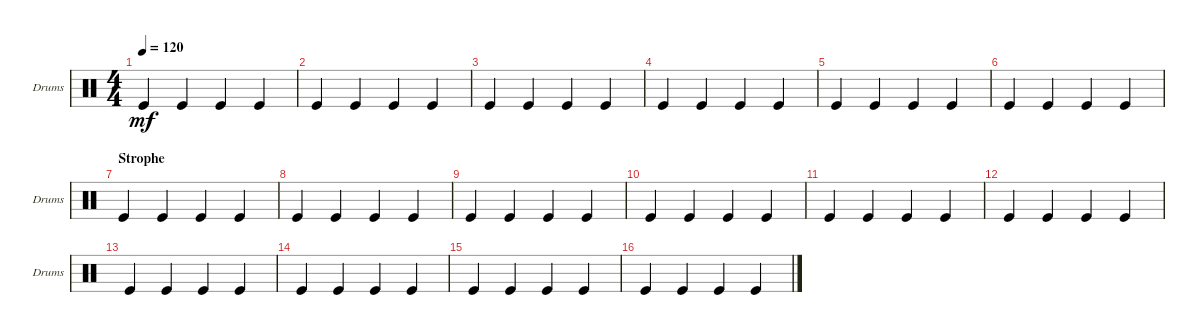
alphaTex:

\bracketExtendMode groupsimilarinstruments
\singleTrackTrackNamePolicy allsystems
\multiTrackTrackNamePolicy allsystems
\firstSystemTrackNameOrientation horizontal
\otherSystemsTrackNameOrientation horizontal
\track ("Bass Drum" "Drums") {instrument percussion}
\staff {score}
\articulation defaults
\ts (4 4)
\tempo 120
\clef neutral
\ks c "Kick (hit)".4{dy mf} "Kick (hit)".4 "Kick (hit)".4 "Kick (hit)".4
|
"Kick (hit)".4 "Kick (hit)".4 "Kick (hit)".4 "Kick (hit)".4 |
"Kick (hit)".4 "Kick (hit)".4 "Kick (hit)".4 "Kick (hit)".4 |
"Kick (hit)".4 "Kick (hit)".4 "Kick (hit)".4 "Kick (hit)".4 |
"Kick (hit)".4 "Kick (hit)".4 "Kick (hit)".4 "Kick (hit)".4 |
"Kick (hit)".4 "Kick (hit)".4 "Kick (hit)".4 "Kick (hit)".4 |
\section ("" "Strophe")
"Kick (hit)".4 "Kick (hit)".4 "Kick (hit)".4 "Kick (hit)".4 |
"Kick (hit)".4 "Kick (hit)".4 "Kick (hit)".4 "Kick (hit)".4 |
"Kick (hit)".4 "Kick (hit)".4 "Kick (hit)".4 "Kick (hit)".4 |
"Kick (hit)".4 "Kick (hit)".4 "Kick (hit)".4 "Kick (hit)".4 |
"Kick (hit)".4 "Kick (hit)".4 "Kick (hit)".4 "Kick (hit)".4 |
"Kick (hit)".4 "Kick (hit)".4 "Kick (hit)".4 "Kick (hit)".4 |
"Kick (hit)".4 "Kick (hit)".4 "Kick (hit)".4 "Kick (hit)".4 |
"Kick (hit)".4 "Kick (hit)".4 "Kick (hit)".4 "Kick (hit)".4 |
"Kick (hit)".4 "Kick (hit)".4 "Kick (hit)".4 "Kick (hit)".4 |
"Kick (hit)".4 "Kick (hit)".4 "Kick (hit)".4 "Kick (hit)".4
